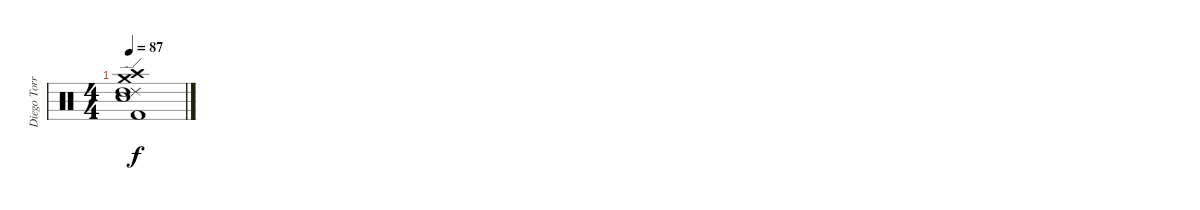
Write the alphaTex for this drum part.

\track ("Diego Torres [Bateria]" "Diego Torr") {instrument percussion}
\staff {score}
\articulation defaults
\ts (4 4)
\tempo 87
\clef neutral
\ks c
("Crash medium (hit)" "Crash high (hit)" "Ride (edge) 2" "High Tom (hit)" "Electric Snare (hit)" "Kick (hit) 2").1{dy f}
